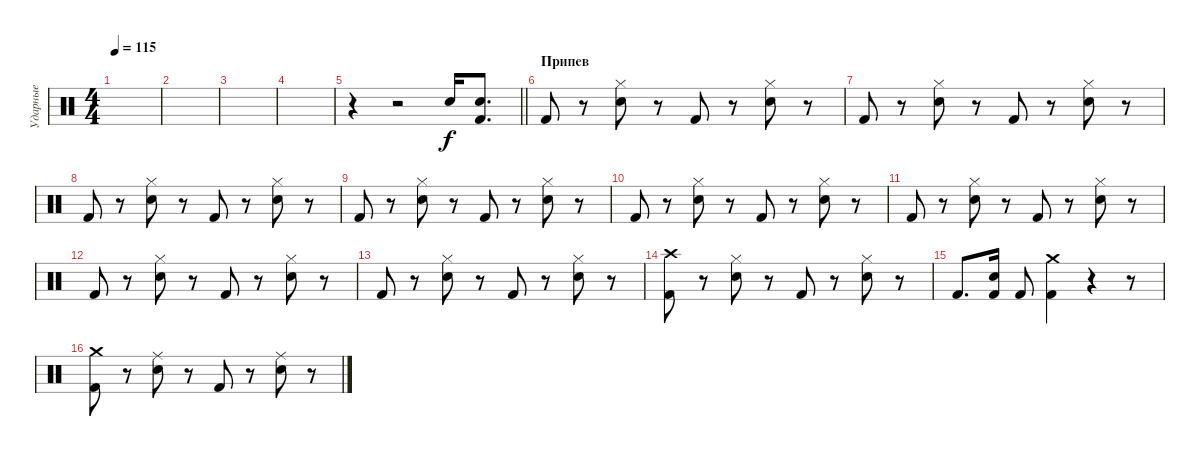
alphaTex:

\track ("Ударные" "Ударные") {instrument percussion}
\staff {score}
\articulation defaults
\ts (4 4)
\tempo 115
\clef neutral
\ks c
|
|
|
|
\barLineRight lightlight
r.4 r.2 "Snare (hit) 2".16 ("Snare (hit) 2" "Kick (hit) 2").8{d} |
\section ("" "Припев")
"Kick (hit) 2".8 r.8 ("Snare (hit) 2" "Hi-Hat (closed)").8 r.8 "Kick (hit) 2".8 r.8 ("Snare (hit) 2" "Hi-Hat (closed)").8 r.8 |
"Kick (hit) 2".8 r.8 ("Snare (hit) 2" "Hi-Hat (closed)").8 r.8 "Kick (hit) 2".8 r.8 ("Snare (hit) 2" "Hi-Hat (closed)").8 r.8 |
"Kick (hit) 2".8 r.8 ("Snare (hit) 2" "Hi-Hat (closed)").8 r.8 "Kick (hit) 2".8 r.8 ("Snare (hit) 2" "Hi-Hat (closed)").8 r.8 |
"Kick (hit) 2".8 r.8 ("Snare (hit) 2" "Hi-Hat (closed)").8 r.8 "Kick (hit) 2".8 r.8 ("Snare (hit) 2" "Hi-Hat (closed)").8 r.8 |
"Kick (hit) 2".8 r.8 ("Snare (hit) 2" "Hi-Hat (closed)").8 r.8 "Kick (hit) 2".8 r.8 ("Snare (hit) 2" "Hi-Hat (closed)").8 r.8 |
"Kick (hit) 2".8 r.8 ("Snare (hit) 2" "Hi-Hat (closed)").8 r.8 "Kick (hit) 2".8 r.8 ("Snare (hit) 2" "Hi-Hat (closed)").8 r.8 |
"Kick (hit) 2".8 r.8 ("Snare (hit) 2" "Hi-Hat (closed)").8 r.8 "Kick (hit) 2".8 r.8 ("Snare (hit) 2" "Hi-Hat (closed)").8 r.8 |
"Kick (hit) 2".8 r.8 ("Snare (hit) 2" "Hi-Hat (closed)").8 r.8 "Kick (hit) 2".8 r.8 ("Snare (hit) 2" "Hi-Hat (closed)").8 r.8 |
("Kick (hit) 2" "Crash high (hit)").8 r.8 ("Snare (hit) 2" "Hi-Hat (closed)").8 r.8 "Kick (hit) 2".8 r.8 ("Snare (hit) 2" "Hi-Hat (closed)").8 r.8 |
"Kick (hit) 2".8{d} ("Kick (hit) 2" "Snare (hit) 2").16 "Kick (hit) 2".8 ("Kick (hit) 2" "Crash medium (hit)").4 r.4 r.8 |
("Kick (hit) 2" "Crash medium (hit)").8 r.8 ("Ride (middle)" "Snare (hit) 2").8 r.8 "Kick (hit) 2".8 r.8 ("Ride (middle)" "Snare (hit) 2").8 r.8
